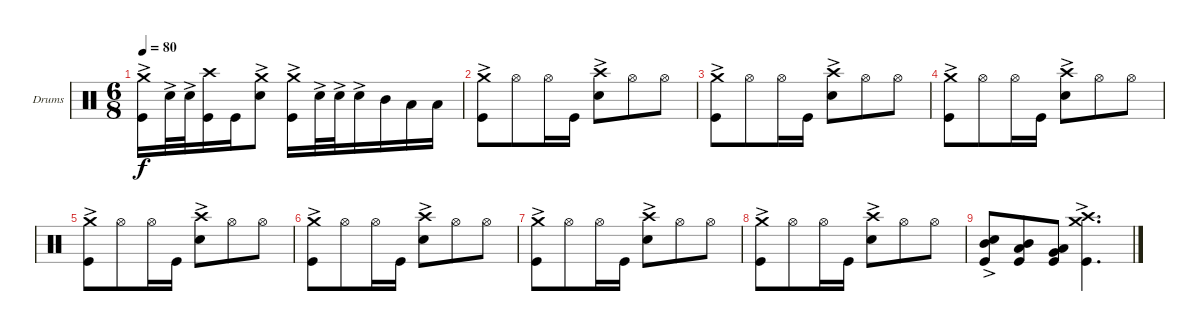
\defaultSystemsLayout 4
\bracketExtendMode groupsimilarinstruments
\firstSystemTrackNameOrientation horizontal
\otherSystemsTrackNameOrientation horizontal
\track ("Drumkit" "Drums") {instrument percussion}
\staff {score}
\articulation defaults
\ts (6 8)
\tempo 80
\clef neutral
\ks c
("Crash medium (hit)"{ac} "Kick (hit)").16{dy f} "Snare (hit) 2"{ac}.32 "Snare (hit) 2"{ac}.32 ("Crash high (hit)" "Kick (hit)").16 "Kick (hit)".16 ("Crash medium (hit)"{ac} "Snare (hit) 2"{ac}).8 ("Crash medium (hit)"{ac} "Kick (hit)").16 "Snare (hit) 2"{ac}.32 "Snare (hit) 2"{ac}.32 "Snare (hit) 2"{ac}.16 "Mid Tom (hit)".16 "Low Tom (hit)".16 "Low Tom (hit)".16 |
("Crash medium (hit)"{ac} "Kick (hit)").8 "Hi-Hat (open)".8 "Hi-Hat (open)".16 "Kick (hit)".16 ("Crash high (hit)" "Snare (hit) 2"{ac}).8 "Hi-Hat (open)".8 "Hi-Hat (open)".8 |
("Crash medium (hit)"{ac} "Kick (hit)").8 "Hi-Hat (open)".8 "Hi-Hat (open)".16 "Kick (hit)".16 ("Crash high (hit)" "Snare (hit) 2"{ac}).8 "Hi-Hat (open)".8 "Hi-Hat (open)".8 |
("Crash medium (hit)"{ac} "Kick (hit)").8 "Hi-Hat (open)".8 "Hi-Hat (open)".16 "Kick (hit)".16 ("Crash high (hit)" "Snare (hit) 2"{ac}).8 "Hi-Hat (open)".8 "Hi-Hat (open)".8 |
("Crash medium (hit)"{ac} "Kick (hit)").8 "Hi-Hat (open)".8 "Hi-Hat (open)".16 "Kick (hit)".16 ("Crash high (hit)" "Snare (hit) 2"{ac}).8 "Hi-Hat (open)".8 "Hi-Hat (open)".8 |
("Crash medium (hit)"{ac} "Kick (hit)").8 "Hi-Hat (open)".8 "Hi-Hat (open)".16 "Kick (hit)".16 ("Crash high (hit)" "Snare (hit) 2"{ac}).8 "Hi-Hat (open)".8 "Hi-Hat (open)".8 |
("Crash medium (hit)"{ac} "Kick (hit)").8 "Hi-Hat (open)".8 "Hi-Hat (open)".16 "Kick (hit)".16 ("Crash high (hit)" "Snare (hit) 2"{ac}).8 "Hi-Hat (open)".8 "Hi-Hat (open)".8 |
("Crash medium (hit)"{ac} "Kick (hit)").8 "Hi-Hat (open)".8 "Hi-Hat (open)".16 "Kick (hit)".16 ("Crash high (hit)" "Snare (hit) 2"{ac}).8 "Hi-Hat (open)".8 "Hi-Hat (open)".8 |
("Mid Tom (hit)" "Snare (hit) 2"{ac} "Kick (hit)").8 ("Mid Tom (hit)" "Low Tom (hit)" "Kick (hit)").8 ("Low Tom (hit)" "Very Low Tom (hit)" "Kick (hit)").8 ("Crash medium (hit)"{ac} "Crash high (hit)" "Kick (hit)").4{d}
